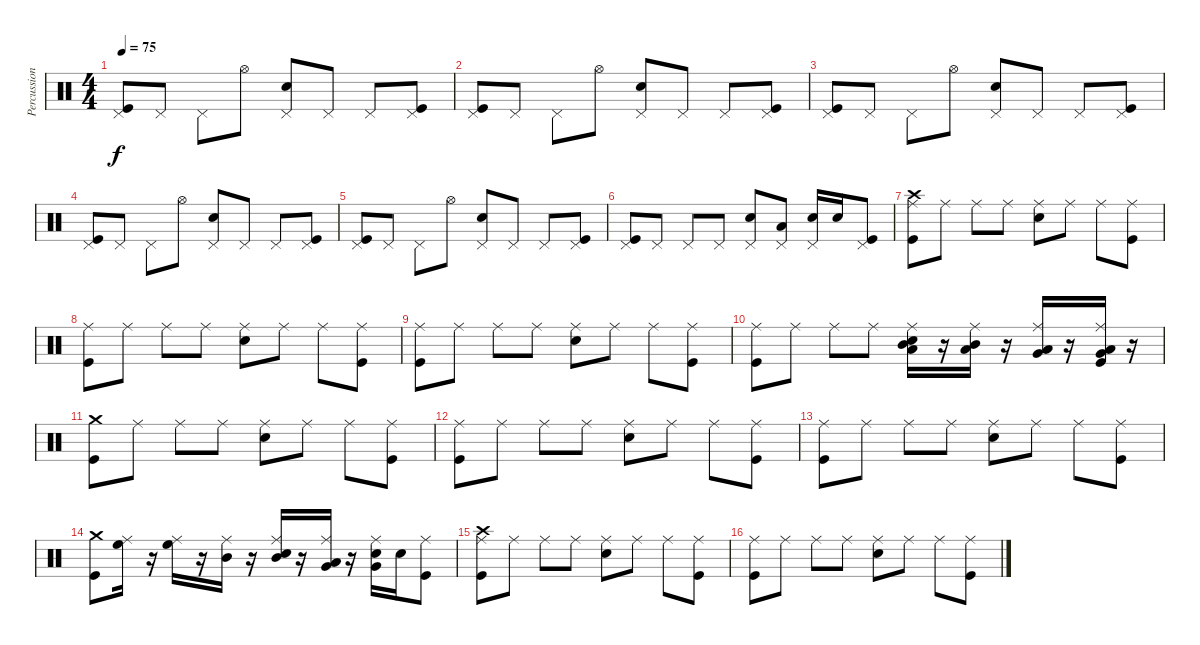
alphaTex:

\track ("Percussion" "Percussion") {instrument percussion}
\staff {score}
\articulation defaults
\ts (4 4)
\tempo 75
\clef neutral
\ks c
("Pedal Hi-Hat (hit)" "Kick (hit)").8{dy f} "Pedal Hi-Hat (hit)".8 "Pedal Hi-Hat (hit)".8 "Hi-Hat (open)".8 ("Snare (hit) 2" "Pedal Hi-Hat (hit)").8 "Pedal Hi-Hat (hit)".8 "Pedal Hi-Hat (hit)".8 ("Kick (hit)" "Pedal Hi-Hat (hit)").8 |
("Pedal Hi-Hat (hit)" "Kick (hit)").8 "Pedal Hi-Hat (hit)".8 "Pedal Hi-Hat (hit)".8 "Hi-Hat (open)".8 ("Snare (hit) 2" "Pedal Hi-Hat (hit)").8 "Pedal Hi-Hat (hit)".8 "Pedal Hi-Hat (hit)".8 ("Kick (hit)" "Pedal Hi-Hat (hit)").8 |
("Pedal Hi-Hat (hit)" "Kick (hit)").8 "Pedal Hi-Hat (hit)".8 "Pedal Hi-Hat (hit)".8 "Hi-Hat (open)".8 ("Snare (hit) 2" "Pedal Hi-Hat (hit)").8 "Pedal Hi-Hat (hit)".8 "Pedal Hi-Hat (hit)".8 ("Kick (hit)" "Pedal Hi-Hat (hit)").8 |
("Pedal Hi-Hat (hit)" "Kick (hit)").8 "Pedal Hi-Hat (hit)".8 "Pedal Hi-Hat (hit)".8 "Hi-Hat (open)".8 ("Snare (hit) 2" "Pedal Hi-Hat (hit)").8 "Pedal Hi-Hat (hit)".8 "Pedal Hi-Hat (hit)".8 ("Kick (hit)" "Pedal Hi-Hat (hit)").8 |
("Pedal Hi-Hat (hit)" "Kick (hit)").8 "Pedal Hi-Hat (hit)".8 "Pedal Hi-Hat (hit)".8 "Hi-Hat (open)".8 ("Snare (hit) 2" "Pedal Hi-Hat (hit)").8 "Pedal Hi-Hat (hit)".8 "Pedal Hi-Hat (hit)".8 ("Kick (hit)" "Pedal Hi-Hat (hit)").8 |
("Pedal Hi-Hat (hit)" "Kick (hit)").8 "Pedal Hi-Hat (hit)".8 "Pedal Hi-Hat (hit)".8 "Pedal Hi-Hat (hit)".8 ("Snare (hit) 2" "Pedal Hi-Hat (hit)").8 ("Low Floor Tom (hit)" "Pedal Hi-Hat (hit)").8 ("Snare (hit) 2" "Pedal Hi-Hat (hit)").16 "Snare (hit) 2".16 ("Kick (hit)" "Pedal Hi-Hat (hit)").8 |
("Crash high (hit)" "Kick (hit)" "Ride (middle)").8 "Ride (middle)".8 "Ride (middle)".8 "Ride (middle)".8 ("Snare (hit) 2" "Ride (middle)").8 "Ride (middle)".8 "Ride (middle)".8 ("Kick (hit)" "Ride (middle)").8 |
("Ride (middle)" "Kick (hit)").8 "Ride (middle)".8 "Ride (middle)".8 "Ride (middle)".8 ("Snare (hit) 2" "Ride (middle)").8 "Ride (middle)".8 "Ride (middle)".8 ("Kick (hit)" "Ride (middle)").8 |
("Ride (middle)" "Kick (hit)").8 "Ride (middle)".8 "Ride (middle)".8 "Ride (middle)".8 ("Snare (hit) 2" "Ride (middle)").8 "Ride (middle)".8 "Ride (middle)".8 ("Kick (hit)" "Ride (middle)").8 |
("Ride (middle)" "Kick (hit)").8 "Ride (middle)".8 "Ride (middle)".8 "Ride (middle)".8 ("Low Tom (hit)" "Mid Tom (hit)" "Snare (hit) 2" "Ride (middle)").16 r.16 ("Low Tom (hit)" "Mid Tom (hit)" "Ride (middle)").16 r.16 ("Low Floor Tom (hit)" "Very Low Tom (hit)" "Ride (middle)").16 r.16 ("Low Floor Tom (hit)" "Very Low Tom (hit)" "Kick (hit)" "Ride (middle)").16 r.16 |
("Crash medium (hit)" "Kick (hit)").8 "Ride (middle)".8 "Ride (middle)".8 "Ride (middle)".8 ("Snare (hit) 2" "Ride (middle)").8 "Ride (middle)".8 "Ride (middle)".8 ("Kick (hit)" "Ride (middle)").8 |
("Ride (middle)" "Kick (hit)").8 "Ride (middle)".8 "Ride (middle)".8 "Ride (middle)".8 ("Snare (hit) 2" "Ride (middle)").8 "Ride (middle)".8 "Ride (middle)".8 ("Kick (hit)" "Ride (middle)").8 |
("Ride (middle)" "Kick (hit)").8 "Ride (middle)".8 "Ride (middle)".8 "Ride (middle)".8 ("Snare (hit) 2" "Ride (middle)").8 "Ride (middle)".8 "Ride (middle)".8 ("Kick (hit)" "Ride (middle)").8 |
("Crash medium (hit)" "Kick (hit)").8 ("High Floor Tom (hit)" "Ride (middle)").16 r.16 ("High Floor Tom (hit)" "Ride (middle)").16 r.16 ("Mid Tom (hit)" "Ride (middle)").16 r.16 ("Mid Tom (hit)" "Snare (hit) 2" "Ride (middle)").16 r.16 ("Very Low Tom (hit)" "Low Floor Tom (hit)" "Ride (middle)").16 r.16 ("Very Low Tom (hit)" "Snare (hit) 2" "Ride (middle)").16 "Snare (hit) 2".16 ("Kick (hit)" "Ride (middle)").8 |
("Crash high (hit)" "Kick (hit)" "Ride (middle)").8 "Ride (middle)".8 "Ride (middle)".8 "Ride (middle)".8 ("Snare (hit) 2" "Ride (middle)").8 "Ride (middle)".8 "Ride (middle)".8 ("Kick (hit)" "Ride (middle)").8 |
("Ride (middle)" "Kick (hit)").8 "Ride (middle)".8 "Ride (middle)".8 "Ride (middle)".8 ("Snare (hit) 2" "Ride (middle)").8 "Ride (middle)".8 "Ride (middle)".8 ("Kick (hit)" "Ride (middle)").8
